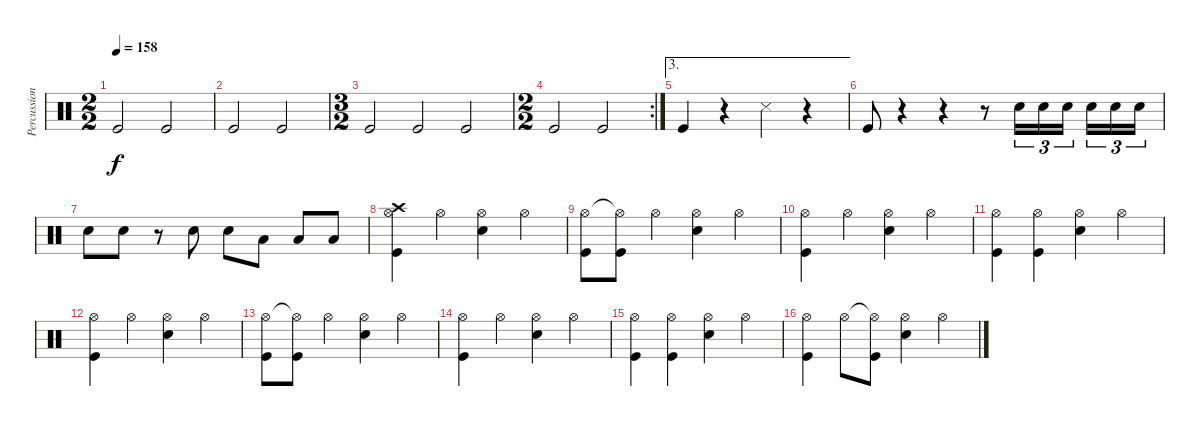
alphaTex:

\track ("Percussion" "Percussion") {instrument percussion}
\staff {score}
\articulation defaults
\ts (2 2)
\tempo 158
\clef neutral
\ks c "Kick (hit)".2{dy f} "Kick (hit)".2
|
"Kick (hit)".2 "Kick (hit)".2 |
\ts (3 2)
"Kick (hit)".2 "Kick (hit)".2 "Kick (hit)".2 |
\rc 2
\ts (2 2)
"Kick (hit)".2 "Kick (hit)".2 |
\ae 3 "Kick (hit)".4
r.4 "Snare (side stick) 3".4 r.4 |
"Kick (hit)".8 r.4 r.4 r.8 "Snare (hit) 2".16{tu (3 2)} "Snare (hit) 2".16{tu (3 2)} "Snare (hit) 2".16{tu (3 2)} "Snare (hit) 2".16{tu (3 2)} "Snare (hit) 2".16{tu (3 2)} "Snare (hit) 2".16{tu (3 2)} |
"Snare (hit) 2".8 "Snare (hit) 2".8 r.8 "Snare (hit) 2".8 "Snare (hit) 2".8 "Low Tom (hit)".8 "Low Tom (hit)".8 "Low Tom (hit)".8 |
("Hi-Hat (open)" "Kick (hit)" "Crash high (hit)").4 "Hi-Hat (open)".4 ("Hi-Hat (open)" "Snare (hit) 2").4 "Hi-Hat (open)".4 |
("Hi-Hat (open)" "Kick (hit)").8 ("Hi-Hat (open)"{t} "Kick (hit)").8 "Hi-Hat (open)".4 ("Hi-Hat (open)" "Snare (hit) 2").4 "Hi-Hat (open)".4 |
("Hi-Hat (open)" "Kick (hit)").4 "Hi-Hat (open)".4 ("Hi-Hat (open)" "Snare (hit) 2").4 "Hi-Hat (open)".4 |
("Hi-Hat (open)" "Kick (hit)").4 ("Hi-Hat (open)" "Kick (hit)").4 ("Hi-Hat (open)" "Snare (hit) 2").4 "Hi-Hat (open)".4 |
("Hi-Hat (open)" "Kick (hit)").4 "Hi-Hat (open)".4 ("Hi-Hat (open)" "Snare (hit) 2").4 "Hi-Hat (open)".4 |
("Hi-Hat (open)" "Kick (hit)").8 ("Hi-Hat (open)"{t} "Kick (hit)").8 "Hi-Hat (open)".4 ("Hi-Hat (open)" "Snare (hit) 2").4 "Hi-Hat (open)".4 |
("Hi-Hat (open)" "Kick (hit)").4 "Hi-Hat (open)".4 ("Hi-Hat (open)" "Snare (hit) 2").4 "Hi-Hat (open)".4 |
("Hi-Hat (open)" "Kick (hit)").4 ("Hi-Hat (open)" "Kick (hit)").4 ("Hi-Hat (open)" "Snare (hit) 2").4 "Hi-Hat (open)".4 |
("Hi-Hat (open)" "Kick (hit)").4 "Hi-Hat (open)".8 ("Hi-Hat (open)"{t} "Kick (hit)").8 ("Hi-Hat (open)" "Snare (hit) 2").4 "Hi-Hat (open)".4
